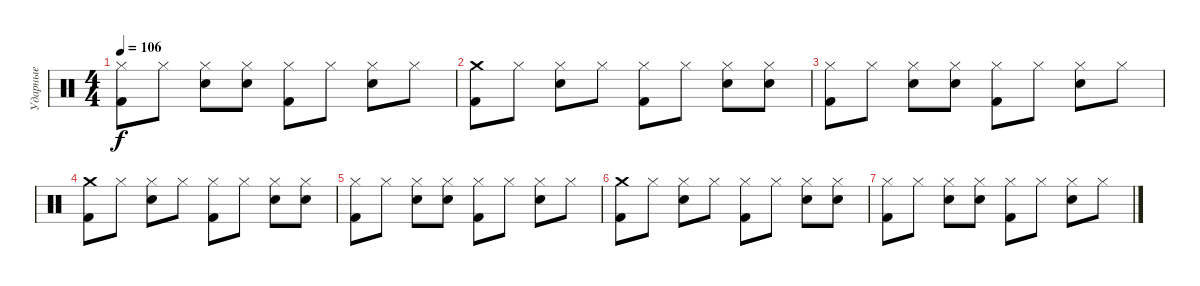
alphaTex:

\track ("Ударные" "Ударные") {instrument percussion}
\staff {score}
\articulation defaults
\ts (4 4)
\tempo 106
\clef neutral
\ks c
("Hi-Hat (closed)" "Kick (hit) 2").8{dy f} "Hi-Hat (closed)".8 ("Hi-Hat (closed)" "Snare (hit) 2").8 ("Hi-Hat (closed)" "Snare (hit) 2").8 ("Hi-Hat (closed)" "Kick (hit) 2").8 "Hi-Hat (closed)".8 ("Hi-Hat (closed)" "Snare (hit) 2").8 "Hi-Hat (closed)".8 |
("Crash medium (hit)" "Kick (hit) 2").8 "Hi-Hat (closed)".8 ("Hi-Hat (closed)" "Snare (hit) 2").8 "Hi-Hat (closed)".8 ("Hi-Hat (closed)" "Kick (hit) 2").8 "Hi-Hat (closed)".8 ("Hi-Hat (closed)" "Snare (hit) 2").8 ("Hi-Hat (closed)" "Snare (hit) 2").8 |
("Hi-Hat (closed)" "Kick (hit) 2").8 "Hi-Hat (closed)".8 ("Hi-Hat (closed)" "Snare (hit) 2").8 ("Hi-Hat (closed)" "Snare (hit) 2").8 ("Hi-Hat (closed)" "Kick (hit) 2").8 "Hi-Hat (closed)".8 ("Hi-Hat (closed)" "Snare (hit) 2").8 "Hi-Hat (closed)".8 |
("Crash medium (hit)" "Kick (hit) 2").8 "Hi-Hat (closed)".8 ("Hi-Hat (closed)" "Snare (hit) 2").8 "Hi-Hat (closed)".8 ("Hi-Hat (closed)" "Kick (hit) 2").8{volume 8} "Hi-Hat (closed)".8 ("Hi-Hat (closed)" "Snare (hit) 2").8 ("Hi-Hat (closed)" "Snare (hit) 2").8 |
("Hi-Hat (closed)" "Kick (hit) 2").8 "Hi-Hat (closed)".8 ("Hi-Hat (closed)" "Snare (hit) 2").8 ("Hi-Hat (closed)" "Snare (hit) 2").8 ("Hi-Hat (closed)" "Kick (hit) 2").8{volume 6} "Hi-Hat (closed)".8 ("Hi-Hat (closed)" "Snare (hit) 2").8 "Hi-Hat (closed)".8 |
("Crash medium (hit)" "Kick (hit) 2").8 "Hi-Hat (closed)".8 ("Hi-Hat (closed)" "Snare (hit) 2").8 "Hi-Hat (closed)".8 ("Hi-Hat (closed)" "Kick (hit) 2").8{volume 3} "Hi-Hat (closed)".8 ("Hi-Hat (closed)" "Snare (hit) 2").8 ("Hi-Hat (closed)" "Snare (hit) 2").8 |
("Hi-Hat (closed)" "Kick (hit) 2").8{volume 2} "Hi-Hat (closed)".8 ("Hi-Hat (closed)" "Snare (hit) 2").8 ("Hi-Hat (closed)" "Snare (hit) 2").8 ("Hi-Hat (closed)" "Kick (hit) 2").8{volume 1} "Hi-Hat (closed)".8 ("Hi-Hat (closed)" "Snare (hit) 2").8 "Hi-Hat (closed)".8{volume 0}
